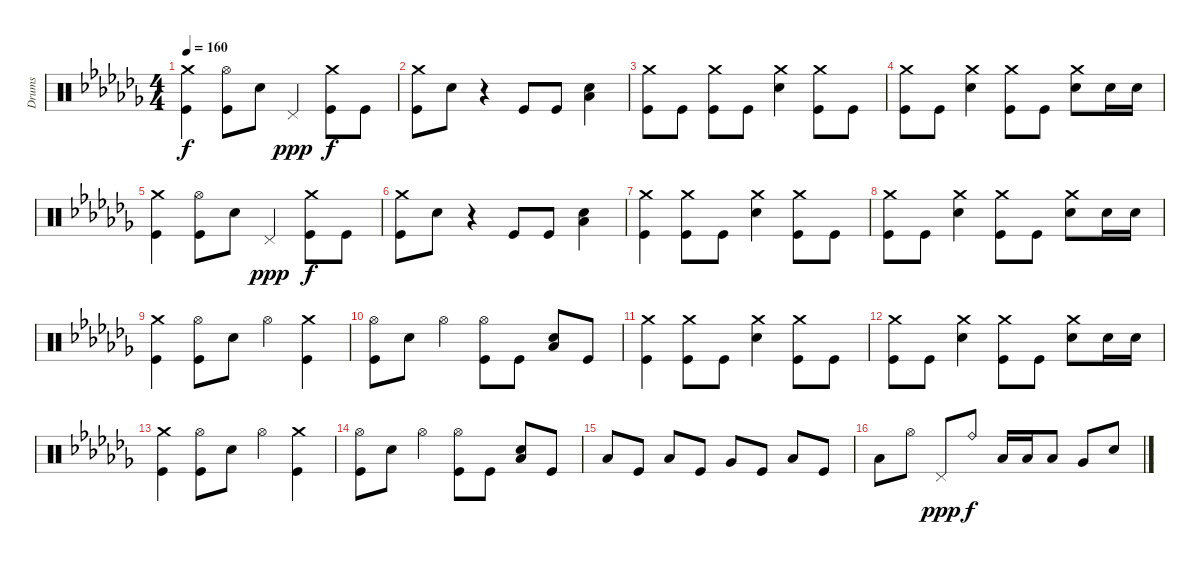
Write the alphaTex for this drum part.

\track ("Drums" "Drums") {instrument percussion}
\staff {score}
\articulation defaults
\ts (4 4)
\tempo 160
\clef neutral
\ks cb
("Crash medium (hit)" "Kick (hit)").4{dy f} ("Hi-Hat (open)" "Kick (hit)").8 "Electric Snare (hit)".8 "Pedal Hi-Hat (hit)".4{dy ppp} ("Crash medium (hit)" "Kick (hit)").8{dy f} "Kick (hit)".8 |
("Crash medium (hit)" "Kick (hit)").8 "Electric Snare (hit)".8 r.4 "Kick (hit)".8 "Kick (hit)".8 ("Electric Snare (hit)" "Low Floor Tom (hit)").4 |
("Crash medium (hit)" "Kick (hit)").8 "Kick (hit)".8 ("Crash medium (hit)" "Kick (hit)").8 "Kick (hit)".8 ("Crash medium (hit)" "Electric Snare (hit)").4 ("Crash medium (hit)" "Kick (hit)").8 "Kick (hit)".8 |
("Crash medium (hit)" "Kick (hit)").8 "Kick (hit)".8 ("Crash medium (hit)" "Electric Snare (hit)").4 ("Crash medium (hit)" "Kick (hit)").8 "Kick (hit)".8 ("Crash medium (hit)" "Electric Snare (hit)").8 "Electric Snare (hit)".16 "Electric Snare (hit)".16 |
("Crash medium (hit)" "Kick (hit)").4 ("Hi-Hat (open)" "Kick (hit)").8 "Electric Snare (hit)".8 "Pedal Hi-Hat (hit)".4{dy ppp} ("Crash medium (hit)" "Kick (hit)").8{dy f} "Kick (hit)".8 |
("Crash medium (hit)" "Kick (hit)").8 "Electric Snare (hit)".8 r.4 "Kick (hit)".8 "Kick (hit)".8 ("Electric Snare (hit)" "Low Floor Tom (hit)").4 |
("Crash medium (hit)" "Kick (hit)").4 ("Crash medium (hit)" "Kick (hit)").8 "Kick (hit)".8 ("Crash medium (hit)" "Electric Snare (hit)").4 ("Crash medium (hit)" "Kick (hit)").8 "Kick (hit)".8 |
("Crash medium (hit)" "Kick (hit)").8 "Kick (hit)".8 ("Crash medium (hit)" "Electric Snare (hit)").4 ("Crash medium (hit)" "Kick (hit)").8 "Kick (hit)".8 ("Crash medium (hit)" "Electric Snare (hit)").8 "Electric Snare (hit)".16 "Electric Snare (hit)".16 |
("Crash medium (hit)" "Kick (hit)").4 ("Hi-Hat (open)" "Kick (hit)").8 "Electric Snare (hit)".8 "Hi-Hat (open)".4 ("Crash medium (hit)" "Kick (hit)").4 |
("Hi-Hat (open)" "Kick (hit)").8 "Electric Snare (hit)".8 "Hi-Hat (open)".4 ("Hi-Hat (open)" "Kick (hit)").8 "Kick (hit)".8 ("Electric Snare (hit)" "Low Floor Tom (hit)").8 "Kick (hit)".8 |
("Crash medium (hit)" "Kick (hit)").4 ("Crash medium (hit)" "Kick (hit)").8 "Kick (hit)".8 ("Crash medium (hit)" "Electric Snare (hit)").4 ("Crash medium (hit)" "Kick (hit)").8 "Kick (hit)".8 |
("Crash medium (hit)" "Kick (hit)").8 "Kick (hit)".8 ("Crash medium (hit)" "Electric Snare (hit)").4 ("Crash medium (hit)" "Kick (hit)").8 "Kick (hit)".8 ("Crash medium (hit)" "Electric Snare (hit)").8 "Electric Snare (hit)".16 "Electric Snare (hit)".16 |
("Crash medium (hit)" "Kick (hit)").4 ("Hi-Hat (open)" "Kick (hit)").8 "Electric Snare (hit)".8 "Hi-Hat (open)".4 ("Crash medium (hit)" "Kick (hit)").4 |
("Hi-Hat (open)" "Kick (hit)").8 "Electric Snare (hit)".8 "Hi-Hat (open)".4 ("Hi-Hat (open)" "Kick (hit)").8 "Kick (hit)".8 ("Electric Snare (hit)" "Low Floor Tom (hit)").8 "Kick (hit)".8 |
"Low Tom (hit)".8 "Kick (hit)".8 "Low Floor Tom (hit)".8 "Kick (hit)".8 "Very Low Tom (hit)".8 "Kick (hit)".8 "Low Floor Tom (hit)".8 "Kick (hit)".8 |
"Low Floor Tom (hit)".8 "Hi-Hat (open)".8 "Pedal Hi-Hat (hit)".8{dy ppp} "Ride (bell)".8{dy f} "Low Tom (hit)".16 "Low Tom (hit)".16 "Low Tom (hit)".8 "Very Low Tom (hit)".8 "Electric Snare (hit)".8
